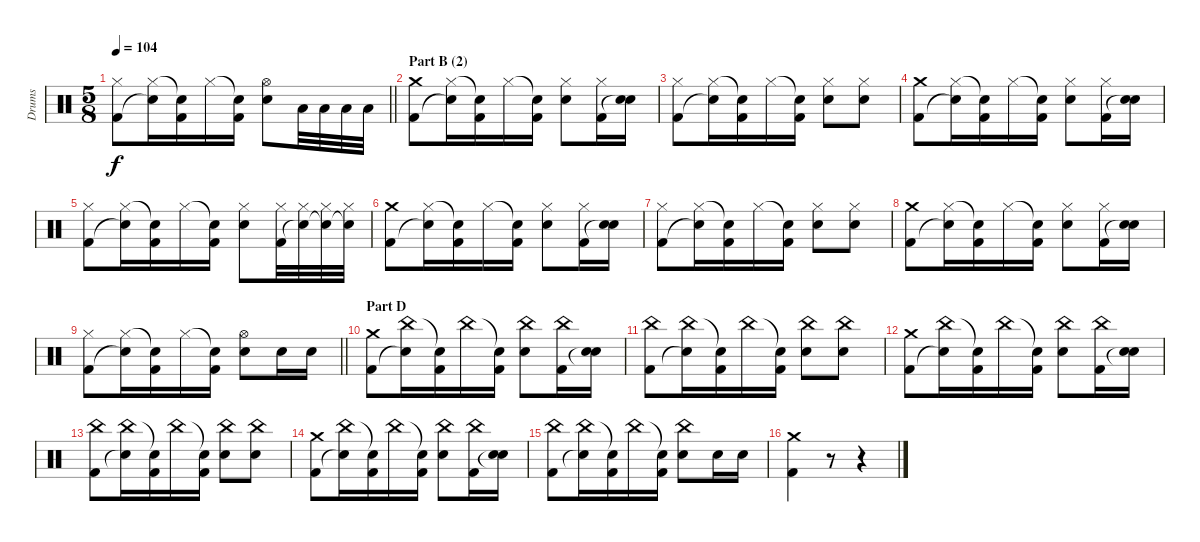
\track ("Drums" "Drums") {instrument percussion}
\staff {score}
\articulation defaults
\ts (5 8)
\tempo 104
\clef neutral
\barLineRight lightlight
\ks c
("Hi-Hat (closed)" "Kick (hit) 2").8{dy f} ("Hi-Hat (closed)" "Snare (hit)"{t}).16 ("Snare (hit)"{t} "Kick (hit) 2").16 "Hi-Hat (closed)".16 ("Snare (hit)"{t} "Kick (hit) 2").16 ("Hi-Hat (open)" "Electric Snare (hit)").8 "Low Tom (hit)".32 "Low Tom (hit)".32 "Low Tom (hit)".32 "Low Tom (hit)".32 |
\section ("" "Part B (2)")
("Crash medium (hit)" "Kick (hit) 2").8 ("Hi-Hat (closed)" "Snare (hit)"{t}).16 ("Snare (hit)"{t} "Kick (hit) 2").16 "Hi-Hat (closed)".16 ("Snare (hit)"{t} "Kick (hit) 2").16 ("Hi-Hat (closed)" "Electric Snare (hit)").8 ("Hi-Hat (closed)" "Kick (hit) 2").16 ("Electric Snare (hit)" "Snare (hit)"{t}).16 |
("Hi-Hat (closed)" "Kick (hit) 2").8 ("Hi-Hat (closed)" "Snare (hit)"{t}).16 ("Snare (hit)"{t} "Kick (hit) 2").16 "Hi-Hat (closed)".16 ("Snare (hit)"{t} "Kick (hit) 2").16 ("Hi-Hat (closed)" "Electric Snare (hit)").8 ("Hi-Hat (closed)" "Electric Snare (hit)").8 |
("Crash medium (hit)" "Kick (hit) 2").8 ("Hi-Hat (closed)" "Snare (hit)"{t}).16 ("Snare (hit)"{t} "Kick (hit) 2").16 "Hi-Hat (closed)".16 ("Snare (hit)"{t} "Kick (hit) 2").16 ("Hi-Hat (closed)" "Electric Snare (hit)").8 ("Hi-Hat (closed)" "Kick (hit) 2").16 ("Electric Snare (hit)" "Snare (hit)"{t}).16 |
("Hi-Hat (closed)" "Kick (hit) 2").8 ("Hi-Hat (closed)" "Snare (hit)"{t}).16 ("Snare (hit)"{t} "Kick (hit) 2").16 "Hi-Hat (closed)".16 ("Snare (hit)"{t} "Kick (hit) 2").16 ("Hi-Hat (closed)" "Electric Snare (hit)").8 ("Hi-Hat (closed)" "Kick (hit) 2").32 ("Hi-Hat (closed)" "Snare (hit)"{t}).32 ("Hi-Hat (closed)" "Snare (hit)"{t}).32 ("Hi-Hat (closed)" "Snare (hit)"{t}).32 |
("Crash medium (hit)" "Kick (hit) 2").8 ("Hi-Hat (closed)" "Snare (hit)"{t}).16 ("Snare (hit)"{t} "Kick (hit) 2").16 "Hi-Hat (closed)".16 ("Snare (hit)"{t} "Kick (hit) 2").16 ("Hi-Hat (closed)" "Electric Snare (hit)").8 ("Hi-Hat (closed)" "Kick (hit) 2").16 ("Electric Snare (hit)" "Snare (hit)"{t}).16 |
("Hi-Hat (closed)" "Kick (hit) 2").8 ("Hi-Hat (closed)" "Snare (hit)"{t}).16 ("Snare (hit)"{t} "Kick (hit) 2").16 "Hi-Hat (closed)".16 ("Snare (hit)"{t} "Kick (hit) 2").16 ("Hi-Hat (closed)" "Electric Snare (hit)").8 ("Hi-Hat (closed)" "Electric Snare (hit)").8 |
("Crash medium (hit)" "Kick (hit) 2").8 ("Hi-Hat (closed)" "Snare (hit)"{t}).16 ("Snare (hit)"{t} "Kick (hit) 2").16 "Hi-Hat (closed)".16 ("Snare (hit)"{t} "Kick (hit) 2").16 ("Hi-Hat (closed)" "Electric Snare (hit)").8 ("Hi-Hat (closed)" "Kick (hit) 2").16 ("Electric Snare (hit)" "Snare (hit)"{t}).16 |
\barLineRight lightlight
("Hi-Hat (closed)" "Kick (hit) 2").8 ("Hi-Hat (closed)" "Snare (hit)"{t}).16 ("Snare (hit)"{t} "Kick (hit) 2").16 "Hi-Hat (closed)".16 ("Snare (hit)"{t} "Kick (hit) 2").16 ("Hi-Hat (open)" "Electric Snare (hit)").8 "Electric Snare (hit)".16 "Electric Snare (hit)".16 |
\section ("" "Part D")
("Crash medium (hit)" "Kick (hit) 2").8 ("China (hit)" "Snare (hit)"{t}).16 ("Snare (hit)"{t} "Kick (hit) 2").16 "China (hit)".16 ("Snare (hit)"{t} "Kick (hit) 2").16 ("China (hit)" "Electric Snare (hit)").8 ("China (hit)" "Kick (hit) 2").16 ("Electric Snare (hit)" "Snare (hit)"{t}).16 |
("China (hit)" "Kick (hit) 2").8 ("China (hit)" "Snare (hit)"{t}).16 ("Snare (hit)"{t} "Kick (hit) 2").16 "China (hit)".16 ("Snare (hit)"{t} "Kick (hit) 2").16 ("China (hit)" "Electric Snare (hit)").8 ("China (hit)" "Electric Snare (hit)").8 |
("Crash medium (hit)" "Kick (hit) 2").8 ("China (hit)" "Snare (hit)"{t}).16 ("Snare (hit)"{t} "Kick (hit) 2").16 "China (hit)".16 ("Snare (hit)"{t} "Kick (hit) 2").16 ("China (hit)" "Electric Snare (hit)").8 ("China (hit)" "Kick (hit) 2").16 ("Electric Snare (hit)" "Snare (hit)"{t}).16 |
("China (hit)" "Kick (hit) 2").8 ("China (hit)" "Snare (hit)"{t}).16 ("Snare (hit)"{t} "Kick (hit) 2").16 "China (hit)".16 ("Snare (hit)"{t} "Kick (hit) 2").16 ("China (hit)" "Electric Snare (hit)").8 ("China (hit)" "Electric Snare (hit)").8 |
("Crash medium (hit)" "Kick (hit) 2").8 ("China (hit)" "Snare (hit)"{t}).16 ("Snare (hit)"{t} "Kick (hit) 2").16 "China (hit)".16 ("Snare (hit)"{t} "Kick (hit) 2").16 ("China (hit)" "Electric Snare (hit)").8 ("China (hit)" "Kick (hit) 2").16 ("Electric Snare (hit)" "Snare (hit)"{t}).16 |
("China (hit)" "Kick (hit) 2").8 ("China (hit)" "Snare (hit)"{t}).16 ("Snare (hit)"{t} "Kick (hit) 2").16 "China (hit)".16 ("Snare (hit)"{t} "Kick (hit) 2").16 ("China (hit)" "Electric Snare (hit)").8 "Electric Snare (hit)".16 "Electric Snare (hit)".16 |
("Crash medium (hit)" "Kick (hit) 2").4 r.8 r.4
